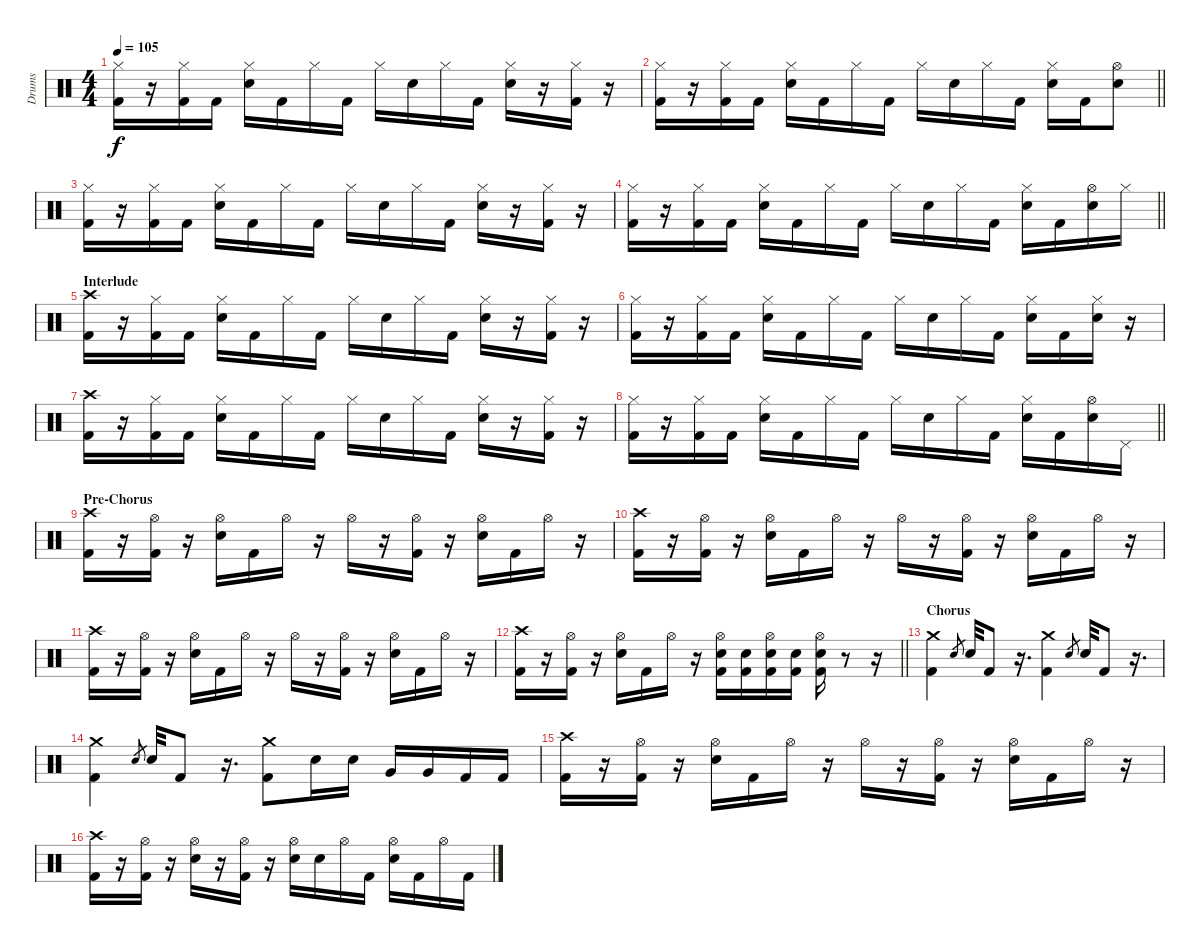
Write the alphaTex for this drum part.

\track ("Drums" "Drums") {instrument percussion}
\staff {score}
\articulation defaults
\ts (4 4)
\tempo 105
\clef neutral
\ks c
("Hi-Hat (closed)" "Kick (hit) 2").16{dy f} r.16 ("Hi-Hat (closed)" "Kick (hit) 2").16 "Kick (hit) 2".16 ("Hi-Hat (closed)" "Electric Snare (hit)").16 "Kick (hit) 2".16 "Hi-Hat (closed)".16 "Kick (hit) 2".16 "Hi-Hat (closed)".16 "Electric Snare (hit)".16 "Hi-Hat (closed)".16 "Kick (hit) 2".16 ("Hi-Hat (closed)" "Electric Snare (hit)").16 r.16 ("Hi-Hat (closed)" "Kick (hit) 2").16 r.16 |
\barLineRight lightlight
("Hi-Hat (closed)" "Kick (hit) 2").16 r.16 ("Hi-Hat (closed)" "Kick (hit) 2").16 "Kick (hit) 2".16 ("Hi-Hat (closed)" "Electric Snare (hit)").16 "Kick (hit) 2".16 "Hi-Hat (closed)".16 "Kick (hit) 2".16 "Hi-Hat (closed)".16 "Electric Snare (hit)".16 "Hi-Hat (closed)".16 "Kick (hit) 2".16 ("Hi-Hat (closed)" "Electric Snare (hit)").16 "Kick (hit) 2".16 ("Hi-Hat (open)" "Electric Snare (hit)").8 |
("Hi-Hat (closed)" "Kick (hit) 2").16 r.16 ("Hi-Hat (closed)" "Kick (hit) 2").16 "Kick (hit) 2".16 ("Hi-Hat (closed)" "Electric Snare (hit)").16 "Kick (hit) 2".16 "Hi-Hat (closed)".16 "Kick (hit) 2".16 "Hi-Hat (closed)".16 "Electric Snare (hit)".16 "Hi-Hat (closed)".16 "Kick (hit) 2".16 ("Hi-Hat (closed)" "Electric Snare (hit)").16 r.16 ("Hi-Hat (closed)" "Kick (hit) 2").16 r.16 |
\barLineRight lightlight
("Hi-Hat (closed)" "Kick (hit) 2").16 r.16 ("Hi-Hat (closed)" "Kick (hit) 2").16 "Kick (hit) 2".16 ("Hi-Hat (closed)" "Electric Snare (hit)").16 "Kick (hit) 2".16 "Hi-Hat (closed)".16 "Kick (hit) 2".16 "Hi-Hat (closed)".16 "Electric Snare (hit)".16 "Hi-Hat (closed)".16 "Kick (hit) 2".16 ("Hi-Hat (closed)" "Electric Snare (hit)").16 "Kick (hit) 2".16 ("Hi-Hat (open)" "Electric Snare (hit)").16 "Hi-Hat (closed)".16 |
\section ("" "Interlude")
("Crash high (hit)" "Kick (hit) 2").16 r.16 ("Hi-Hat (closed)" "Kick (hit) 2").16 "Kick (hit) 2".16 ("Hi-Hat (closed)" "Electric Snare (hit)").16 "Kick (hit) 2".16 "Hi-Hat (closed)".16 "Kick (hit) 2".16 "Hi-Hat (closed)".16 "Electric Snare (hit)".16 "Hi-Hat (closed)".16 "Kick (hit) 2".16 ("Hi-Hat (closed)" "Electric Snare (hit)").16 r.16 ("Hi-Hat (closed)" "Kick (hit) 2").16 r.16 |
("Hi-Hat (closed)" "Kick (hit) 2").16 r.16 ("Hi-Hat (closed)" "Kick (hit) 2").16 "Kick (hit) 2".16 ("Hi-Hat (closed)" "Electric Snare (hit)").16 "Kick (hit) 2".16 "Hi-Hat (closed)".16 "Kick (hit) 2".16 "Hi-Hat (closed)".16 "Electric Snare (hit)".16 "Hi-Hat (closed)".16 "Kick (hit) 2".16 ("Hi-Hat (closed)" "Electric Snare (hit)").16 "Kick (hit) 2".16 ("Hi-Hat (closed)" "Electric Snare (hit)").16 r.16 |
("Crash high (hit)" "Kick (hit) 2").16 r.16 ("Hi-Hat (closed)" "Kick (hit) 2").16 "Kick (hit) 2".16 ("Hi-Hat (closed)" "Electric Snare (hit)").16 "Kick (hit) 2".16 "Hi-Hat (closed)".16 "Kick (hit) 2".16 "Hi-Hat (closed)".16 "Electric Snare (hit)".16 "Hi-Hat (closed)".16 "Kick (hit) 2".16 ("Hi-Hat (closed)" "Electric Snare (hit)").16 r.16 ("Hi-Hat (closed)" "Kick (hit) 2").16 r.16 |
\barLineRight lightlight
("Hi-Hat (closed)" "Kick (hit) 2").16 r.16 ("Hi-Hat (closed)" "Kick (hit) 2").16 "Kick (hit) 2".16 ("Hi-Hat (closed)" "Electric Snare (hit)").16 "Kick (hit) 2".16 "Hi-Hat (closed)".16 "Kick (hit) 2".16 "Hi-Hat (closed)".16 "Electric Snare (hit)".16 "Hi-Hat (closed)".16 "Kick (hit) 2".16 ("Hi-Hat (closed)" "Electric Snare (hit)").16 "Kick (hit) 2".16 ("Hi-Hat (open)" "Electric Snare (hit)").16 "Pedal Hi-Hat (hit)".16 |
\section ("" "Pre-Chorus")
("Crash high (hit)" "Kick (hit) 2").16 r.16 ("Hi-Hat (open)" "Kick (hit) 2").16 r.16 ("Hi-Hat (open)" "Electric Snare (hit)").16 "Kick (hit) 2".16 "Hi-Hat (open)".16 r.16 "Hi-Hat (open)".16 r.16 ("Hi-Hat (open)" "Kick (hit) 2").16 r.16 ("Hi-Hat (open)" "Electric Snare (hit)").16 "Kick (hit) 2".16 "Hi-Hat (open)".16 r.16 |
("Crash high (hit)" "Kick (hit) 2").16 r.16 ("Hi-Hat (open)" "Kick (hit) 2").16 r.16 ("Hi-Hat (open)" "Electric Snare (hit)").16 "Kick (hit) 2".16 "Hi-Hat (open)".16 r.16 "Hi-Hat (open)".16 r.16 ("Hi-Hat (open)" "Kick (hit) 2").16 r.16 ("Hi-Hat (open)" "Electric Snare (hit)").16 "Kick (hit) 2".16 "Hi-Hat (open)".16 r.16 |
("Crash high (hit)" "Kick (hit) 2").16 r.16 ("Hi-Hat (open)" "Kick (hit) 2").16 r.16 ("Hi-Hat (open)" "Electric Snare (hit)").16 "Kick (hit) 2".16 "Hi-Hat (open)".16 r.16 "Hi-Hat (open)".16 r.16 ("Hi-Hat (open)" "Kick (hit) 2").16 r.16 ("Hi-Hat (open)" "Electric Snare (hit)").16 "Kick (hit) 2".16 "Hi-Hat (open)".16 r.16 |
\barLineRight lightlight
("Crash high (hit)" "Kick (hit) 2").16 r.16 ("Hi-Hat (open)" "Kick (hit) 2").16 r.16 ("Hi-Hat (open)" "Electric Snare (hit)").16 "Kick (hit) 2".16 "Hi-Hat (open)".16 r.16 ("Hi-Hat (open)" "Electric Snare (hit)" "Kick (hit) 2").16 ("Electric Snare (hit)" "Kick (hit) 2").16 ("Hi-Hat (open)" "Electric Snare (hit)" "Kick (hit) 2").16 ("Electric Snare (hit)" "Kick (hit) 2").16 ("Hi-Hat (open)" "Electric Snare (hit)" "Kick (hit) 2").16 r.8 r.16 |
\section ("" "Chorus")
("Crash medium (hit)" "Kick (hit) 2").4 "Electric Snare (hit)".8{gr} "Electric Snare (hit)".32 "Kick (hit) 2".8 r.16{d} ("Crash medium (hit)" "Kick (hit) 2").4 "Electric Snare (hit)".8{gr} "Electric Snare (hit)".32 "Kick (hit) 2".8 r.16{d} |
("Crash medium (hit)" "Kick (hit) 2").4 "Electric Snare (hit)".8{gr} "Electric Snare (hit)".32 "Kick (hit) 2".8 r.16{d} ("Crash medium (hit)" "Kick (hit) 2").8 "Electric Snare (hit)".16 "Electric Snare (hit)".16 "Very Low Tom (hit)".16 "Very Low Tom (hit)".16 "Kick (hit) 2".16 "Kick (hit) 2".16 |
("Crash high (hit)" "Kick (hit) 2").16 r.16 ("Hi-Hat (open)" "Kick (hit) 2").16 r.16 ("Hi-Hat (open)" "Electric Snare (hit)").16 "Kick (hit) 2".16 "Hi-Hat (open)".16 r.16 "Hi-Hat (open)".16 r.16 ("Hi-Hat (open)" "Kick (hit) 2").16 r.16 ("Hi-Hat (open)" "Electric Snare (hit)").16 "Kick (hit) 2".16 "Hi-Hat (open)".16 r.16 |
("Crash high (hit)" "Kick (hit) 2").16 r.16 ("Hi-Hat (open)" "Kick (hit) 2").16 r.16 ("Hi-Hat (open)" "Electric Snare (hit)").16 r.16 ("Hi-Hat (open)" "Kick (hit) 2").16 r.16 ("Hi-Hat (open)" "Electric Snare (hit)").16 "Electric Snare (hit)".16 "Hi-Hat (open)".16 "Kick (hit) 2".16 ("Hi-Hat (open)" "Electric Snare (hit)").16 "Kick (hit) 2".16 "Hi-Hat (open)".16 "Kick (hit) 2".16
